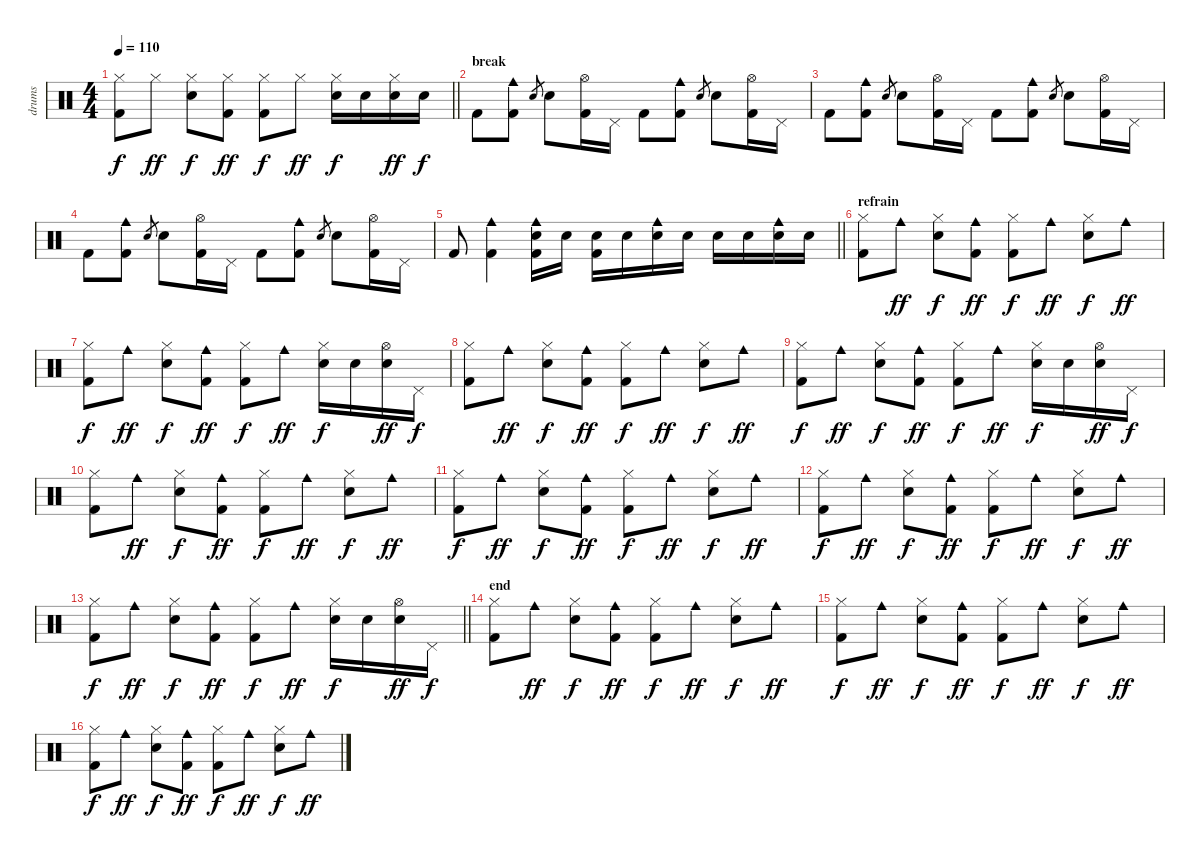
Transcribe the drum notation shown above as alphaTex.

\track ("drums" "drums") {instrument percussion}
\staff {score}
\articulation defaults
\ts (4 4)
\tempo 110
\clef neutral
\barLineRight lightlight
\ks aminor
("Hi-Hat (closed)" "Kick (hit) 2").8{dy f} "Hi-Hat (closed)".8{dy ff} ("Hi-Hat (closed)" "Snare (hit) 2").8{dy f} ("Hi-Hat (closed)" "Kick (hit) 2").8{dy ff} ("Hi-Hat (closed)" "Kick (hit) 2").8{dy f} "Hi-Hat (closed)".8{dy ff} ("Hi-Hat (closed)" "Snare (hit) 2").16{dy f} "Snare (hit) 2".16 ("Hi-Hat (closed)" "Snare (hit) 2").16{dy ff} "Snare (hit) 2".16{dy f} |
\section ("" "break")
"Kick (hit) 2".8 ("Cowbell medium (hit)" "Kick (hit) 2").8 "Hand Clap (hit)".8{gr} "Hand Clap (hit)".8 ("Hi-Hat (open)" "Kick (hit) 2").16 "Pedal Hi-Hat (hit)".16 "Kick (hit) 2".8 ("Cowbell medium (hit)" "Kick (hit) 2").8 "Hand Clap (hit)".8{gr} "Hand Clap (hit)".8 ("Hi-Hat (open)" "Kick (hit) 2").16 "Pedal Hi-Hat (hit)".16 |
"Kick (hit) 2".8 ("Cowbell medium (hit)" "Kick (hit) 2").8 "Hand Clap (hit)".8{gr} "Hand Clap (hit)".8 ("Hi-Hat (open)" "Kick (hit) 2").16 "Pedal Hi-Hat (hit)".16 "Kick (hit) 2".8 ("Cowbell medium (hit)" "Kick (hit) 2").8 "Hand Clap (hit)".8{gr} "Hand Clap (hit)".8 ("Hi-Hat (open)" "Kick (hit) 2").16 "Pedal Hi-Hat (hit)".16 |
"Kick (hit) 2".8 ("Cowbell medium (hit)" "Kick (hit) 2").8 "Hand Clap (hit)".8{gr} "Hand Clap (hit)".8 ("Hi-Hat (open)" "Kick (hit) 2").16 "Pedal Hi-Hat (hit)".16 "Kick (hit) 2".8 ("Cowbell medium (hit)" "Kick (hit) 2").8 "Hand Clap (hit)".8{gr} "Hand Clap (hit)".8 ("Hi-Hat (open)" "Kick (hit) 2").16 "Pedal Hi-Hat (hit)".16 |
\barLineRight lightlight "Kick (hit) 2".8
("Cowbell medium (hit)" "Kick (hit) 2").4 ("Cowbell medium (hit)" "Snare (hit) 2" "Kick (hit) 2").16 "Snare (hit) 2".16 ("Snare (hit) 2" "Kick (hit) 2").16 "Snare (hit) 2".16 ("Cowbell medium (hit)" "Snare (hit) 2").16 "Snare (hit) 2".16 "Snare (hit) 2".16 "Snare (hit) 2".16 ("Cowbell medium (hit)" "Snare (hit) 2").16 "Snare (hit) 2".16 |
\section ("" "refrain")
("Hi-Hat (closed)" "Kick (hit) 2").8 "Cowbell medium (hit)".8{dy ff} ("Hi-Hat (closed)" "Snare (hit) 2").8{dy f} ("Cowbell medium (hit)" "Kick (hit) 2").8{dy ff} ("Hi-Hat (closed)" "Kick (hit) 2").8{dy f} "Cowbell medium (hit)".8{dy ff} ("Hi-Hat (closed)" "Snare (hit) 2").8{dy f} "Cowbell medium (hit)".8{dy ff} |
("Hi-Hat (closed)" "Kick (hit) 2").8{dy f} "Cowbell medium (hit)".8{dy ff} ("Hi-Hat (closed)" "Snare (hit) 2").8{dy f} ("Cowbell medium (hit)" "Kick (hit) 2").8{dy ff} ("Hi-Hat (closed)" "Kick (hit) 2").8{dy f} "Cowbell medium (hit)".8{dy ff} ("Hi-Hat (closed)" "Snare (hit) 2").16{dy f} "Snare (hit) 2".16 ("Hi-Hat (open)" "Snare (hit) 2").16{dy ff} "Pedal Hi-Hat (hit)".16{dy f} |
("Hi-Hat (closed)" "Kick (hit) 2").8 "Cowbell medium (hit)".8{dy ff} ("Hi-Hat (closed)" "Snare (hit) 2").8{dy f} ("Cowbell medium (hit)" "Kick (hit) 2").8{dy ff} ("Hi-Hat (closed)" "Kick (hit) 2").8{dy f} "Cowbell medium (hit)".8{dy ff} ("Hi-Hat (closed)" "Snare (hit) 2").8{dy f} "Cowbell medium (hit)".8{dy ff} |
("Hi-Hat (closed)" "Kick (hit) 2").8{dy f} "Cowbell medium (hit)".8{dy ff} ("Hi-Hat (closed)" "Snare (hit) 2").8{dy f} ("Cowbell medium (hit)" "Kick (hit) 2").8{dy ff} ("Hi-Hat (closed)" "Kick (hit) 2").8{dy f} "Cowbell medium (hit)".8{dy ff} ("Hi-Hat (closed)" "Snare (hit) 2").16{dy f} "Snare (hit) 2".16 ("Hi-Hat (open)" "Snare (hit) 2").16{dy ff} "Pedal Hi-Hat (hit)".16{dy f} |
("Hi-Hat (closed)" "Kick (hit) 2").8 "Cowbell medium (hit)".8{dy ff} ("Hi-Hat (closed)" "Snare (hit) 2").8{dy f} ("Cowbell medium (hit)" "Kick (hit) 2").8{dy ff} ("Hi-Hat (closed)" "Kick (hit) 2").8{dy f} "Cowbell medium (hit)".8{dy ff} ("Hi-Hat (closed)" "Snare (hit) 2").8{dy f} "Cowbell medium (hit)".8{dy ff} |
("Hi-Hat (closed)" "Kick (hit) 2").8{dy f} "Cowbell medium (hit)".8{dy ff} ("Hi-Hat (closed)" "Snare (hit) 2").8{dy f} ("Cowbell medium (hit)" "Kick (hit) 2").8{dy ff} ("Hi-Hat (closed)" "Kick (hit) 2").8{dy f} "Cowbell medium (hit)".8{dy ff} ("Hi-Hat (closed)" "Snare (hit) 2").8{dy f} "Cowbell medium (hit)".8{dy ff} |
("Hi-Hat (closed)" "Kick (hit) 2").8{dy f} "Cowbell medium (hit)".8{dy ff} ("Hi-Hat (closed)" "Snare (hit) 2").8{dy f} ("Cowbell medium (hit)" "Kick (hit) 2").8{dy ff} ("Hi-Hat (closed)" "Kick (hit) 2").8{dy f} "Cowbell medium (hit)".8{dy ff} ("Hi-Hat (closed)" "Snare (hit) 2").8{dy f} "Cowbell medium (hit)".8{dy ff} |
\barLineRight lightlight
("Hi-Hat (closed)" "Kick (hit) 2").8{dy f} "Cowbell medium (hit)".8{dy ff} ("Hi-Hat (closed)" "Snare (hit) 2").8{dy f} ("Cowbell medium (hit)" "Kick (hit) 2").8{dy ff} ("Hi-Hat (closed)" "Kick (hit) 2").8{dy f} "Cowbell medium (hit)".8{dy ff} ("Hi-Hat (closed)" "Snare (hit) 2").16{dy f} "Snare (hit) 2".16 ("Hi-Hat (open)" "Snare (hit) 2").16{dy ff} "Pedal Hi-Hat (hit)".16{dy f} |
\section ("" "end")
("Hi-Hat (closed)" "Kick (hit) 2").8 "Cowbell medium (hit)".8{dy ff} ("Hi-Hat (closed)" "Snare (hit) 2").8{dy f} ("Cowbell medium (hit)" "Kick (hit) 2").8{dy ff} ("Hi-Hat (closed)" "Kick (hit) 2").8{dy f} "Cowbell medium (hit)".8{dy ff} ("Hi-Hat (closed)" "Snare (hit) 2").8{dy f} "Cowbell medium (hit)".8{dy ff} |
("Hi-Hat (closed)" "Kick (hit) 2").8{dy f} "Cowbell medium (hit)".8{dy ff} ("Hi-Hat (closed)" "Snare (hit) 2").8{dy f} ("Cowbell medium (hit)" "Kick (hit) 2").8{dy ff} ("Hi-Hat (closed)" "Kick (hit) 2").8{dy f} "Cowbell medium (hit)".8{dy ff} ("Hi-Hat (closed)" "Snare (hit) 2").8{dy f} "Cowbell medium (hit)".8{dy ff} |
("Hi-Hat (closed)" "Kick (hit) 2").8{dy f} "Cowbell medium (hit)".8{dy ff} ("Hi-Hat (closed)" "Snare (hit) 2").8{dy f} ("Cowbell medium (hit)" "Kick (hit) 2").8{dy ff} ("Hi-Hat (closed)" "Kick (hit) 2").8{dy f} "Cowbell medium (hit)".8{dy ff} ("Hi-Hat (closed)" "Snare (hit) 2").8{dy f} "Cowbell medium (hit)".8{dy ff}
